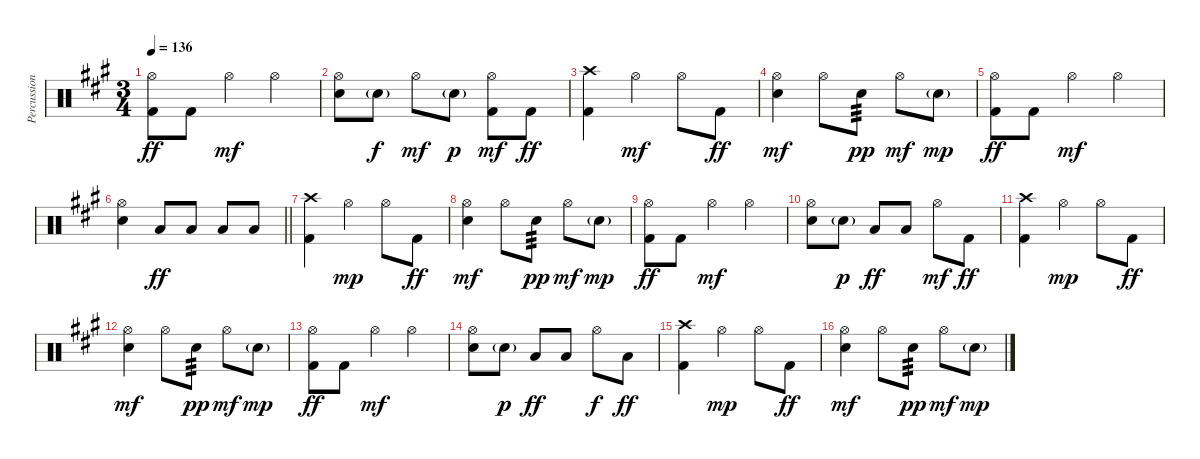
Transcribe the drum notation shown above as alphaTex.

\track ("Percussion" "Percussion") {solo instrument percussion}
\staff {score}
\articulation defaults
\ts (3 4)
\tempo 136
\clef neutral
\ks a
("Hi-Hat (open)" "Kick (hit) 2").8{dy ff} "Kick (hit) 2".8 "Hi-Hat (open)".4{dy mf} "Hi-Hat (open)".4 |
("Hi-Hat (open)" "Snare (hit) 2").8 "Snare (hit) 2"{g}.8{dy f} "Hi-Hat (open)".8{dy mf} "Snare (hit) 2"{g}.8{dy p} ("Hi-Hat (open)" "Kick (hit) 2").8{dy mf} "Kick (hit) 2".8{dy ff} |
("Crash high (hit)" "Kick (hit) 2").4 "Hi-Hat (open)".4{dy mf} "Hi-Hat (open)".8 "Kick (hit) 2".8{dy ff} |
("Hi-Hat (open)" "Snare (hit) 2").4{dy mf} "Hi-Hat (open)".8 "Snare (hit) 2".8{tp 3 dy pp} "Hi-Hat (open)".8{dy mf} "Snare (hit) 2"{g}.8{dy mp} |
("Hi-Hat (open)" "Kick (hit) 2").8{dy ff} "Kick (hit) 2".8 "Hi-Hat (open)".4{dy mf} "Hi-Hat (open)".4 |
\barLineRight lightlight
("Hi-Hat (open)" "Snare (hit) 2").4 "Low Tom (hit)".8{dy ff} "Low Tom (hit)".8 "Low Floor Tom (hit)".8 "Low Floor Tom (hit)".8 |
("Crash high (hit)" "Kick (hit) 2").4 "Hi-Hat (open)".4{dy mp} "Hi-Hat (open)".8 "Kick (hit) 2".8{dy ff} |
("Hi-Hat (open)" "Snare (hit) 2").4{dy mf} "Hi-Hat (open)".8 "Snare (hit) 2".8{tp 3 dy pp} "Hi-Hat (open)".8{dy mf} "Snare (hit) 2"{g}.8{dy mp} |
("Hi-Hat (open)" "Kick (hit) 2").8{dy ff} "Kick (hit) 2".8 "Hi-Hat (open)".4{dy mf} "Hi-Hat (open)".4 |
("Hi-Hat (open)" "Snare (hit) 2").8 "Snare (hit) 2"{g}.8{dy p} "Low Floor Tom (hit)".8{dy ff} "Low Floor Tom (hit)".8 "Hi-Hat (open)".8{dy mf} "Kick (hit) 2".8{dy ff} |
("Crash high (hit)" "Kick (hit) 2").4 "Hi-Hat (open)".4{dy mp} "Hi-Hat (open)".8 "Kick (hit) 2".8{dy ff} |
("Hi-Hat (open)" "Snare (hit) 2").4{dy mf} "Hi-Hat (open)".8 "Snare (hit) 2".8{tp 3 dy pp} "Hi-Hat (open)".8{dy mf} "Snare (hit) 2"{g}.8{dy mp} |
("Hi-Hat (open)" "Kick (hit) 2").8{dy ff} "Kick (hit) 2".8 "Hi-Hat (open)".4{dy mf} "Hi-Hat (open)".4 |
("Hi-Hat (open)" "Snare (hit) 2").8 "Snare (hit) 2"{g}.8{dy p} "Low Floor Tom (hit)".8{dy ff} "Low Floor Tom (hit)".8 "Hi-Hat (open)".8{dy f} "Low Floor Tom (hit)".8{dy ff} |
("Crash high (hit)" "Kick (hit) 2").4 "Hi-Hat (open)".4{dy mp} "Hi-Hat (open)".8 "Kick (hit) 2".8{dy ff} |
("Hi-Hat (open)" "Snare (hit) 2").4{dy mf} "Hi-Hat (open)".8 "Snare (hit) 2".8{tp 3 dy pp} "Hi-Hat (open)".8{dy mf} "Snare (hit) 2"{g}.8{dy mp}
